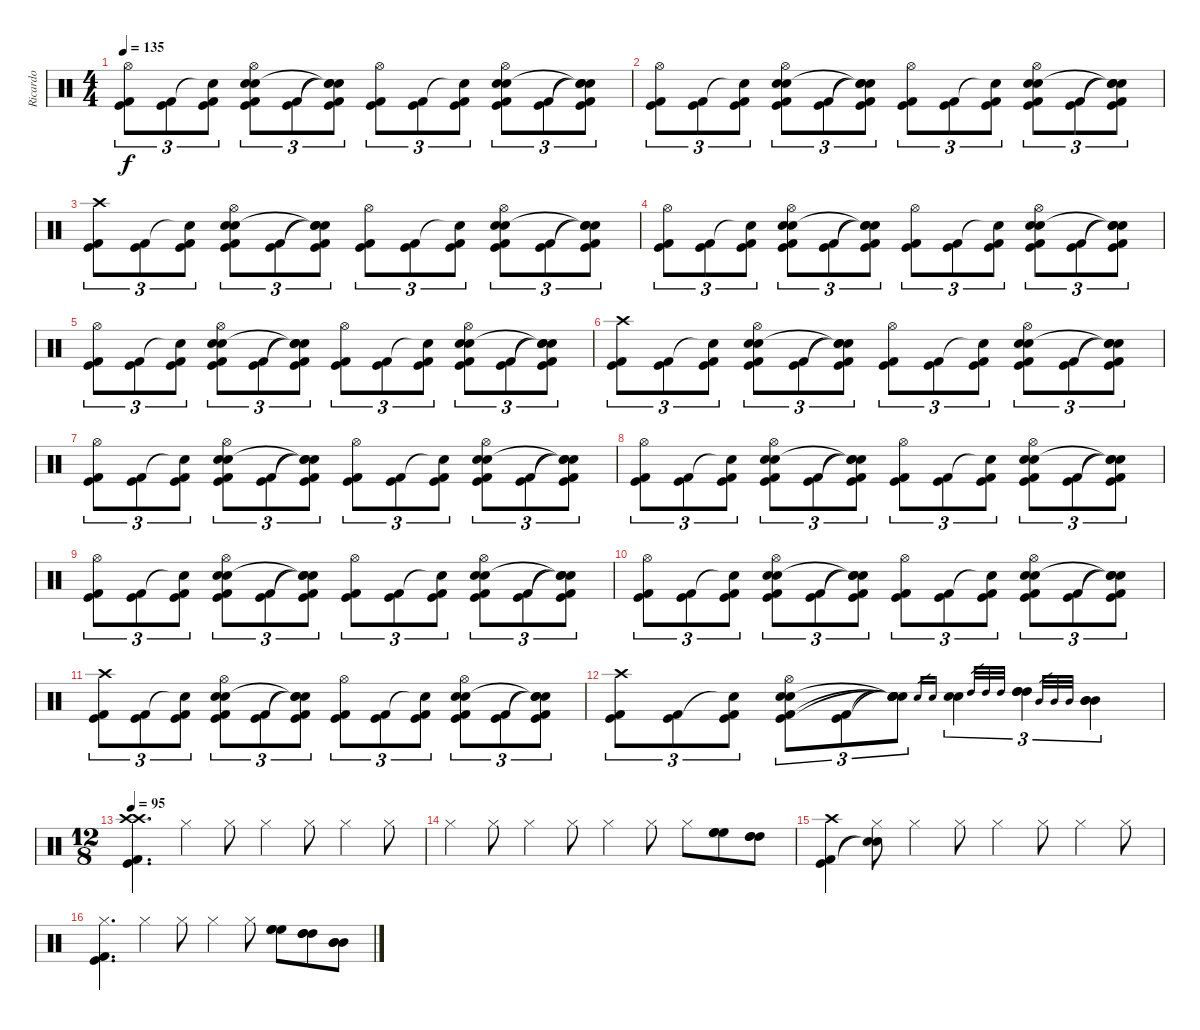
\track ("Ricardo" "Ricardo") {instrument percussion}
\staff {score}
\articulation defaults
\ts (4 4)
\tempo 135
\clef neutral
\ks c
("Hi-Hat (open)" "Kick (hit) 2" "Kick (hit)").8{tu (3 2) dy f} ("Kick (hit) 2" "Kick (hit)").8{tu (3 2)} ("Snare (hit)"{t} "Kick (hit) 2" "Kick (hit)").8{tu (3 2)} ("Hi-Hat (open)" "Electric Snare (hit)" "Snare (hit) 2" "Kick (hit) 2" "Kick (hit)").8{tu (3 2)} ("Kick (hit) 2" "Kick (hit)").8{tu (3 2)} ("Snare (hit)"{t} "Snare (hit)"{t} "Snare (hit)"{t} "Kick (hit) 2" "Kick (hit)").8{tu (3 2)} ("Hi-Hat (open)" "Kick (hit) 2" "Kick (hit)").8{tu (3 2)} ("Kick (hit) 2" "Kick (hit)").8{tu (3 2)} ("Snare (hit)"{t} "Kick (hit) 2" "Kick (hit)").8{tu (3 2)} ("Hi-Hat (open)" "Electric Snare (hit)" "Snare (hit) 2" "Kick (hit) 2" "Kick (hit)").8{tu (3 2)} ("Kick (hit) 2" "Kick (hit)").8{tu (3 2)} ("Snare (hit)"{t} "Snare (hit)"{t} "Snare (hit)"{t} "Kick (hit) 2" "Kick (hit)").8{tu (3 2)} |
("Hi-Hat (open)" "Kick (hit) 2" "Kick (hit)").8{tu (3 2)} ("Kick (hit) 2" "Kick (hit)").8{tu (3 2)} ("Snare (hit)"{t} "Kick (hit) 2" "Kick (hit)").8{tu (3 2)} ("Hi-Hat (open)" "Electric Snare (hit)" "Snare (hit) 2" "Kick (hit) 2" "Kick (hit)").8{tu (3 2)} ("Kick (hit) 2" "Kick (hit)").8{tu (3 2)} ("Snare (hit)"{t} "Snare (hit)"{t} "Snare (hit)"{t} "Kick (hit) 2" "Kick (hit)").8{tu (3 2)} ("Hi-Hat (open)" "Kick (hit) 2" "Kick (hit)").8{tu (3 2)} ("Kick (hit) 2" "Kick (hit)").8{tu (3 2)} ("Snare (hit)"{t} "Kick (hit) 2" "Kick (hit)").8{tu (3 2)} ("Hi-Hat (open)" "Electric Snare (hit)" "Snare (hit) 2" "Kick (hit) 2" "Kick (hit)").8{tu (3 2)} ("Kick (hit) 2" "Kick (hit)").8{tu (3 2)} ("Snare (hit)"{t} "Snare (hit)"{t} "Snare (hit)"{t} "Kick (hit) 2" "Kick (hit)").8{tu (3 2)} |
("Crash high (hit)" "Kick (hit) 2" "Kick (hit)").8{tu (3 2)} ("Kick (hit) 2" "Kick (hit)").8{tu (3 2)} ("Snare (hit)"{t} "Kick (hit) 2" "Kick (hit)").8{tu (3 2)} ("Hi-Hat (open)" "Electric Snare (hit)" "Snare (hit) 2" "Kick (hit) 2" "Kick (hit)").8{tu (3 2)} ("Kick (hit) 2" "Kick (hit)").8{tu (3 2)} ("Snare (hit)"{t} "Snare (hit)"{t} "Snare (hit)"{t} "Kick (hit) 2" "Kick (hit)").8{tu (3 2)} ("Hi-Hat (open)" "Kick (hit) 2" "Kick (hit)").8{tu (3 2)} ("Kick (hit) 2" "Kick (hit)").8{tu (3 2)} ("Snare (hit)"{t} "Kick (hit) 2" "Kick (hit)").8{tu (3 2)} ("Hi-Hat (open)" "Electric Snare (hit)" "Snare (hit) 2" "Kick (hit) 2" "Kick (hit)").8{tu (3 2)} ("Kick (hit) 2" "Kick (hit)").8{tu (3 2)} ("Snare (hit)"{t} "Snare (hit)"{t} "Snare (hit)"{t} "Kick (hit) 2" "Kick (hit)").8{tu (3 2)} |
("Hi-Hat (open)" "Kick (hit) 2" "Kick (hit)").8{tu (3 2)} ("Kick (hit) 2" "Kick (hit)").8{tu (3 2)} ("Snare (hit)"{t} "Kick (hit) 2" "Kick (hit)").8{tu (3 2)} ("Hi-Hat (open)" "Electric Snare (hit)" "Snare (hit) 2" "Kick (hit) 2" "Kick (hit)").8{tu (3 2)} ("Kick (hit) 2" "Kick (hit)").8{tu (3 2)} ("Snare (hit)"{t} "Snare (hit)"{t} "Snare (hit)"{t} "Kick (hit) 2" "Kick (hit)").8{tu (3 2)} ("Hi-Hat (open)" "Kick (hit) 2" "Kick (hit)").8{tu (3 2)} ("Kick (hit) 2" "Kick (hit)").8{tu (3 2)} ("Snare (hit)"{t} "Kick (hit) 2" "Kick (hit)").8{tu (3 2)} ("Hi-Hat (open)" "Electric Snare (hit)" "Snare (hit) 2" "Kick (hit) 2" "Kick (hit)").8{tu (3 2)} ("Kick (hit) 2" "Kick (hit)").8{tu (3 2)} ("Snare (hit)"{t} "Snare (hit)"{t} "Snare (hit)"{t} "Kick (hit) 2" "Kick (hit)").8{tu (3 2)} |
("Hi-Hat (open)" "Kick (hit) 2" "Kick (hit)").8{tu (3 2)} ("Kick (hit) 2" "Kick (hit)").8{tu (3 2)} ("Snare (hit)"{t} "Kick (hit) 2" "Kick (hit)").8{tu (3 2)} ("Hi-Hat (open)" "Electric Snare (hit)" "Snare (hit) 2" "Kick (hit) 2" "Kick (hit)").8{tu (3 2)} ("Kick (hit) 2" "Kick (hit)").8{tu (3 2)} ("Snare (hit)"{t} "Snare (hit)"{t} "Snare (hit)"{t} "Kick (hit) 2" "Kick (hit)").8{tu (3 2)} ("Hi-Hat (open)" "Kick (hit) 2" "Kick (hit)").8{tu (3 2)} ("Kick (hit) 2" "Kick (hit)").8{tu (3 2)} ("Snare (hit)"{t} "Kick (hit) 2" "Kick (hit)").8{tu (3 2)} ("Hi-Hat (open)" "Electric Snare (hit)" "Snare (hit) 2" "Kick (hit) 2" "Kick (hit)").8{tu (3 2)} ("Kick (hit) 2" "Kick (hit)").8{tu (3 2)} ("Snare (hit)"{t} "Snare (hit)"{t} "Snare (hit)"{t} "Kick (hit) 2" "Kick (hit)").8{tu (3 2)} |
("Crash high (hit)" "Kick (hit) 2" "Kick (hit)").8{tu (3 2)} ("Kick (hit) 2" "Kick (hit)").8{tu (3 2)} ("Snare (hit)"{t} "Kick (hit) 2" "Kick (hit)").8{tu (3 2)} ("Hi-Hat (open)" "Electric Snare (hit)" "Snare (hit) 2" "Kick (hit) 2" "Kick (hit)").8{tu (3 2)} ("Kick (hit) 2" "Kick (hit)").8{tu (3 2)} ("Snare (hit)"{t} "Snare (hit)"{t} "Snare (hit)"{t} "Kick (hit) 2" "Kick (hit)").8{tu (3 2)} ("Hi-Hat (open)" "Kick (hit) 2" "Kick (hit)").8{tu (3 2)} ("Kick (hit) 2" "Kick (hit)").8{tu (3 2)} ("Snare (hit)"{t} "Kick (hit) 2" "Kick (hit)").8{tu (3 2)} ("Hi-Hat (open)" "Electric Snare (hit)" "Snare (hit) 2" "Kick (hit) 2" "Kick (hit)").8{tu (3 2)} ("Kick (hit) 2" "Kick (hit)").8{tu (3 2)} ("Snare (hit)"{t} "Snare (hit)"{t} "Snare (hit)"{t} "Kick (hit) 2" "Kick (hit)").8{tu (3 2)} |
("Hi-Hat (open)" "Kick (hit) 2" "Kick (hit)").8{tu (3 2)} ("Kick (hit) 2" "Kick (hit)").8{tu (3 2)} ("Snare (hit)"{t} "Kick (hit) 2" "Kick (hit)").8{tu (3 2)} ("Hi-Hat (open)" "Electric Snare (hit)" "Snare (hit) 2" "Kick (hit) 2" "Kick (hit)").8{tu (3 2)} ("Kick (hit) 2" "Kick (hit)").8{tu (3 2)} ("Snare (hit)"{t} "Snare (hit)"{t} "Snare (hit)"{t} "Kick (hit) 2" "Kick (hit)").8{tu (3 2)} ("Hi-Hat (open)" "Kick (hit) 2" "Kick (hit)").8{tu (3 2)} ("Kick (hit) 2" "Kick (hit)").8{tu (3 2)} ("Snare (hit)"{t} "Kick (hit) 2" "Kick (hit)").8{tu (3 2)} ("Hi-Hat (open)" "Electric Snare (hit)" "Snare (hit) 2" "Kick (hit) 2" "Kick (hit)").8{tu (3 2)} ("Kick (hit) 2" "Kick (hit)").8{tu (3 2)} ("Snare (hit)"{t} "Snare (hit)"{t} "Snare (hit)"{t} "Kick (hit) 2" "Kick (hit)").8{tu (3 2)} |
("Hi-Hat (open)" "Kick (hit) 2" "Kick (hit)").8{tu (3 2)} ("Kick (hit) 2" "Kick (hit)").8{tu (3 2)} ("Snare (hit)"{t} "Kick (hit) 2" "Kick (hit)").8{tu (3 2)} ("Hi-Hat (open)" "Electric Snare (hit)" "Snare (hit) 2" "Kick (hit) 2" "Kick (hit)").8{tu (3 2)} ("Kick (hit) 2" "Kick (hit)").8{tu (3 2)} ("Snare (hit)"{t} "Snare (hit)"{t} "Snare (hit)"{t} "Kick (hit) 2" "Kick (hit)").8{tu (3 2)} ("Hi-Hat (open)" "Kick (hit) 2" "Kick (hit)").8{tu (3 2)} ("Kick (hit) 2" "Kick (hit)").8{tu (3 2)} ("Snare (hit)"{t} "Kick (hit) 2" "Kick (hit)").8{tu (3 2)} ("Hi-Hat (open)" "Electric Snare (hit)" "Snare (hit) 2" "Kick (hit) 2" "Kick (hit)").8{tu (3 2)} ("Kick (hit) 2" "Kick (hit)").8{tu (3 2)} ("Snare (hit)"{t} "Snare (hit)"{t} "Snare (hit)"{t} "Kick (hit) 2" "Kick (hit)").8{tu (3 2)} |
("Hi-Hat (open)" "Kick (hit) 2" "Kick (hit)").8{tu (3 2)} ("Kick (hit) 2" "Kick (hit)").8{tu (3 2)} ("Snare (hit)"{t} "Kick (hit) 2" "Kick (hit)").8{tu (3 2)} ("Hi-Hat (open)" "Electric Snare (hit)" "Snare (hit) 2" "Kick (hit) 2" "Kick (hit)").8{tu (3 2)} ("Kick (hit) 2" "Kick (hit)").8{tu (3 2)} ("Snare (hit)"{t} "Snare (hit)"{t} "Snare (hit)"{t} "Kick (hit) 2" "Kick (hit)").8{tu (3 2)} ("Hi-Hat (open)" "Kick (hit) 2" "Kick (hit)").8{tu (3 2)} ("Kick (hit) 2" "Kick (hit)").8{tu (3 2)} ("Snare (hit)"{t} "Kick (hit) 2" "Kick (hit)").8{tu (3 2)} ("Hi-Hat (open)" "Electric Snare (hit)" "Snare (hit) 2" "Kick (hit) 2" "Kick (hit)").8{tu (3 2)} ("Kick (hit) 2" "Kick (hit)").8{tu (3 2)} ("Snare (hit)"{t} "Snare (hit)"{t} "Snare (hit)"{t} "Kick (hit) 2" "Kick (hit)").8{tu (3 2)} |
("Hi-Hat (open)" "Kick (hit) 2" "Kick (hit)").8{tu (3 2)} ("Kick (hit) 2" "Kick (hit)").8{tu (3 2)} ("Snare (hit)"{t} "Kick (hit) 2" "Kick (hit)").8{tu (3 2)} ("Hi-Hat (open)" "Electric Snare (hit)" "Snare (hit) 2" "Kick (hit) 2" "Kick (hit)").8{tu (3 2)} ("Kick (hit) 2" "Kick (hit)").8{tu (3 2)} ("Snare (hit)"{t} "Snare (hit)"{t} "Snare (hit)"{t} "Kick (hit) 2" "Kick (hit)").8{tu (3 2)} ("Hi-Hat (open)" "Kick (hit) 2" "Kick (hit)").8{tu (3 2)} ("Kick (hit) 2" "Kick (hit)").8{tu (3 2)} ("Snare (hit)"{t} "Kick (hit) 2" "Kick (hit)").8{tu (3 2)} ("Hi-Hat (open)" "Electric Snare (hit)" "Snare (hit) 2" "Kick (hit) 2" "Kick (hit)").8{tu (3 2)} ("Kick (hit) 2" "Kick (hit)").8{tu (3 2)} ("Snare (hit)"{t} "Snare (hit)"{t} "Snare (hit)"{t} "Kick (hit) 2" "Kick (hit)").8{tu (3 2)} |
("Crash high (hit)" "Kick (hit) 2" "Kick (hit)").8{tu (3 2)} ("Kick (hit) 2" "Kick (hit)").8{tu (3 2)} ("Snare (hit)"{t} "Kick (hit) 2" "Kick (hit)").8{tu (3 2)} ("Hi-Hat (open)" "Electric Snare (hit)" "Snare (hit) 2" "Kick (hit) 2" "Kick (hit)").8{tu (3 2)} ("Kick (hit) 2" "Kick (hit)").8{tu (3 2)} ("Snare (hit)"{t} "Snare (hit)"{t} "Snare (hit)"{t} "Kick (hit) 2" "Kick (hit)").8{tu (3 2)} ("Hi-Hat (open)" "Kick (hit) 2" "Kick (hit)").8{tu (3 2)} ("Kick (hit) 2" "Kick (hit)").8{tu (3 2)} ("Snare (hit)"{t} "Kick (hit) 2" "Kick (hit)").8{tu (3 2)} ("Hi-Hat (open)" "Electric Snare (hit)" "Snare (hit) 2" "Kick (hit) 2" "Kick (hit)").8{tu (3 2)} ("Kick (hit) 2" "Kick (hit)").8{tu (3 2)} ("Snare (hit)"{t} "Snare (hit)"{t} "Snare (hit)"{t} "Kick (hit) 2" "Kick (hit)").8{tu (3 2)} |
("Crash high (hit)" "Kick (hit)" "Kick (hit) 2").8{tu (3 2)} ("Kick (hit)" "Kick (hit) 2").8{tu (3 2)} ("Snare (hit)"{t} "Kick (hit)" "Kick (hit) 2").8{tu (3 2)} ("Hi-Hat (open)" "Snare (hit) 2" "Electric Snare (hit)" "Kick (hit)" "Kick (hit) 2").8{tu (3 2)} ("Kick (hit) 2" "Kick (hit)").8{tu (3 2)} ("Snare (hit)"{t} "Snare (hit)"{t} "Snare (hit)"{t} "Snare (hit)"{t} "Snare (hit)"{t}).8{tu (3 2)} "Electric Snare (hit)".16{gr} "Snare (hit) 2".16{gr} ("Electric Snare (hit)" "Snare (hit) 2").4{tu (3 2)} "High Tom (hit)".32{gr} "High Tom (hit)".32{gr} "High Tom (hit)".32{gr} ("High Tom (hit)" "High Tom (hit)" "High Tom (hit)").4{tu (3 2)} "Mid Tom (hit)".32{gr} "Mid Tom (hit)".32{gr} "Mid Tom (hit)".32{gr} ("Mid Tom (hit)" "Mid Tom (hit)" "Mid Tom (hit)").4{tu (3 2)} |
\ts (12 8)
\tempo 95
("Crash high (hit)" "Crash high (hit)" "Kick (hit)" "Kick (hit) 2").4{d} "Hi-Hat (closed)".4 "Hi-Hat (closed)".8 "Hi-Hat (closed)".4 "Hi-Hat (closed)".8 "Hi-Hat (closed)".4 "Hi-Hat (closed)".8 |
"Hi-Hat (closed)".4 "Hi-Hat (closed)".8 "Hi-Hat (closed)".4 "Hi-Hat (closed)".8 "Hi-Hat (closed)".4 "Hi-Hat (closed)".8 "Hi-Hat (closed)".8 ("High Floor Tom (hit)" "High Floor Tom (hit)" "High Floor Tom (hit)").8 ("High Tom (hit)" "High Tom (hit)" "High Tom (hit)").8 |
("Crash high (hit)" "Kick (hit)" "Kick (hit) 2").4 ("Hi-Hat (closed)" "Snare (hit)"{t} "Snare (hit)"{t}).8 "Hi-Hat (closed)".4 "Hi-Hat (closed)".8 "Hi-Hat (closed)".4 "Hi-Hat (closed)".8 "Hi-Hat (closed)".4 "Hi-Hat (closed)".8 |
("Hi-Hat (closed)" "Kick (hit)" "Kick (hit) 2").4{d} "Hi-Hat (closed)".4 "Hi-Hat (closed)".8 "Hi-Hat (closed)".4 "Hi-Hat (closed)".8 ("High Floor Tom (hit)" "High Floor Tom (hit)" "High Floor Tom (hit)").8 ("High Tom (hit)" "High Tom (hit)" "High Tom (hit)").8 ("Mid Tom (hit)" "Mid Tom (hit)" "Mid Tom (hit)").8
